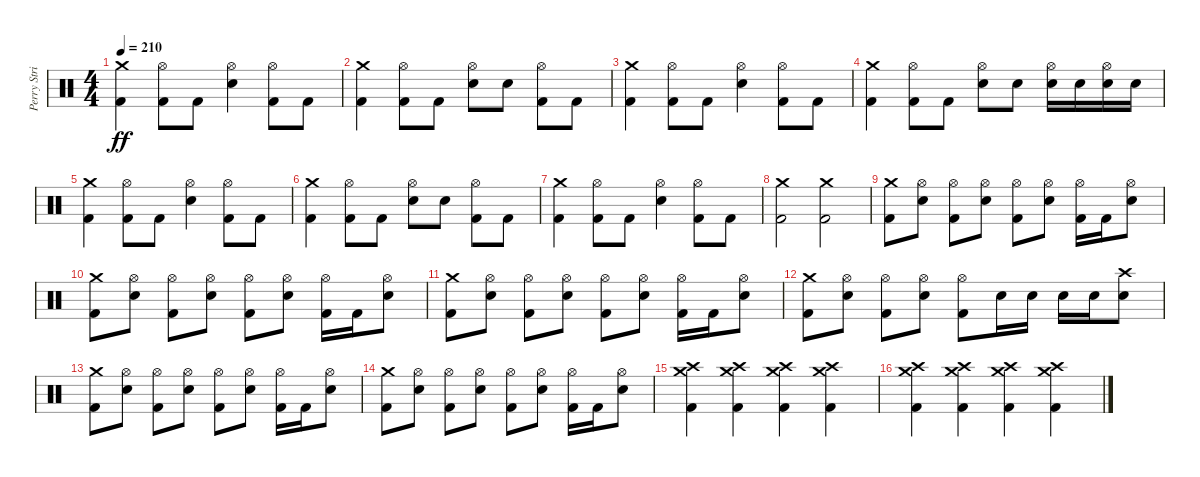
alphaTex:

\track ("Perry Strickland" "Perry Stri") {instrument percussion}
\staff {score}
\articulation defaults
\ts (4 4)
\tempo 210
\clef neutral
\ks c
("Crash medium (hit)" "Kick (hit) 2").4{dy ff} ("Hi-Hat (open)" "Kick (hit) 2").8 "Kick (hit) 2".8 ("Hi-Hat (open)" "Snare (hit) 2").4 ("Hi-Hat (open)" "Kick (hit) 2").8 "Kick (hit) 2".8 |
("Crash medium (hit)" "Kick (hit) 2").4 ("Hi-Hat (open)" "Kick (hit) 2").8 "Kick (hit) 2".8 ("Hi-Hat (open)" "Snare (hit) 2").8 "Snare (hit) 2".8 ("Hi-Hat (open)" "Kick (hit) 2").8 "Kick (hit) 2".8 |
("Crash medium (hit)" "Kick (hit) 2").4 ("Hi-Hat (open)" "Kick (hit) 2").8 "Kick (hit) 2".8 ("Hi-Hat (open)" "Snare (hit) 2").4 ("Hi-Hat (open)" "Kick (hit) 2").8 "Kick (hit) 2".8 |
("Crash medium (hit)" "Kick (hit) 2").4 ("Hi-Hat (open)" "Kick (hit) 2").8 "Kick (hit) 2".8 ("Hi-Hat (open)" "Snare (hit) 2").8 "Snare (hit) 2".8 ("Hi-Hat (open)" "Snare (hit) 2").16 "Snare (hit) 2".16 ("Hi-Hat (open)" "Snare (hit) 2").16 "Snare (hit) 2".16 |
("Crash medium (hit)" "Kick (hit) 2").4 ("Hi-Hat (open)" "Kick (hit) 2").8 "Kick (hit) 2".8 ("Hi-Hat (open)" "Snare (hit) 2").4 ("Hi-Hat (open)" "Kick (hit) 2").8 "Kick (hit) 2".8 |
("Crash medium (hit)" "Kick (hit) 2").4 ("Hi-Hat (open)" "Kick (hit) 2").8 "Kick (hit) 2".8 ("Hi-Hat (open)" "Snare (hit) 2").8 "Snare (hit) 2".8 ("Hi-Hat (open)" "Kick (hit) 2").8 "Kick (hit) 2".8 |
("Crash medium (hit)" "Kick (hit) 2").4 ("Hi-Hat (open)" "Kick (hit) 2").8 "Kick (hit) 2".8 ("Hi-Hat (open)" "Snare (hit) 2").4 ("Hi-Hat (open)" "Kick (hit) 2").8 "Kick (hit) 2".8 |
("Crash medium (hit)" "Kick (hit) 2").2 ("Crash medium (hit)" "Kick (hit) 2").2 |
("Crash medium (hit)" "Kick (hit) 2").8 ("Hi-Hat (open)" "Snare (hit) 2").8 ("Hi-Hat (open)" "Kick (hit) 2").8 ("Hi-Hat (open)" "Snare (hit) 2").8 ("Hi-Hat (open)" "Kick (hit) 2").8 ("Hi-Hat (open)" "Snare (hit) 2").8 ("Hi-Hat (open)" "Kick (hit) 2").16 "Kick (hit) 2".16 ("Hi-Hat (open)" "Snare (hit) 2").8 |
("Crash medium (hit)" "Kick (hit) 2").8 ("Hi-Hat (open)" "Snare (hit) 2").8 ("Hi-Hat (open)" "Kick (hit) 2").8 ("Hi-Hat (open)" "Snare (hit) 2").8 ("Hi-Hat (open)" "Kick (hit) 2").8 ("Hi-Hat (open)" "Snare (hit) 2").8 ("Hi-Hat (open)" "Kick (hit) 2").16 "Kick (hit) 2".16 ("Hi-Hat (open)" "Snare (hit) 2").8 |
("Crash medium (hit)" "Kick (hit) 2").8 ("Hi-Hat (open)" "Snare (hit) 2").8 ("Hi-Hat (open)" "Kick (hit) 2").8 ("Hi-Hat (open)" "Snare (hit) 2").8 ("Hi-Hat (open)" "Kick (hit) 2").8 ("Hi-Hat (open)" "Snare (hit) 2").8 ("Hi-Hat (open)" "Kick (hit) 2").16 "Kick (hit) 2".16 ("Hi-Hat (open)" "Snare (hit) 2").8 |
("Crash medium (hit)" "Kick (hit) 2").8 ("Hi-Hat (open)" "Snare (hit) 2").8 ("Hi-Hat (open)" "Kick (hit) 2").8 ("Hi-Hat (open)" "Snare (hit) 2").8 ("Hi-Hat (open)" "Kick (hit) 2").8 "Snare (hit) 2".16 "Snare (hit) 2".16 "Snare (hit) 2".16 "Snare (hit) 2".16 ("Crash high (hit)" "Snare (hit) 2").8 |
("Crash medium (hit)" "Kick (hit) 2").8 ("Hi-Hat (open)" "Snare (hit) 2").8 ("Hi-Hat (open)" "Kick (hit) 2").8 ("Hi-Hat (open)" "Snare (hit) 2").8 ("Hi-Hat (open)" "Kick (hit) 2").8 ("Hi-Hat (open)" "Snare (hit) 2").8 ("Hi-Hat (open)" "Kick (hit) 2").16 "Kick (hit) 2".16 ("Hi-Hat (open)" "Snare (hit) 2").8 |
("Crash medium (hit)" "Kick (hit) 2").8 ("Hi-Hat (open)" "Snare (hit) 2").8 ("Hi-Hat (open)" "Kick (hit) 2").8 ("Hi-Hat (open)" "Snare (hit) 2").8 ("Hi-Hat (open)" "Kick (hit) 2").8 ("Hi-Hat (open)" "Snare (hit) 2").8 ("Hi-Hat (open)" "Kick (hit) 2").16 "Kick (hit) 2".16 ("Hi-Hat (open)" "Snare (hit) 2").8 |
("Crash medium (hit)" "Crash high (hit)" "Kick (hit) 2").4 ("Crash medium (hit)" "Crash high (hit)" "Kick (hit) 2").4 ("Crash medium (hit)" "Crash high (hit)" "Kick (hit) 2").4 ("Crash medium (hit)" "Crash high (hit)" "Kick (hit) 2").4 |
("Crash medium (hit)" "Crash high (hit)" "Kick (hit) 2").4 ("Crash medium (hit)" "Crash high (hit)" "Kick (hit) 2").4 ("Crash medium (hit)" "Crash high (hit)" "Kick (hit) 2").4 ("Crash medium (hit)" "Crash high (hit)" "Kick (hit) 2").4
